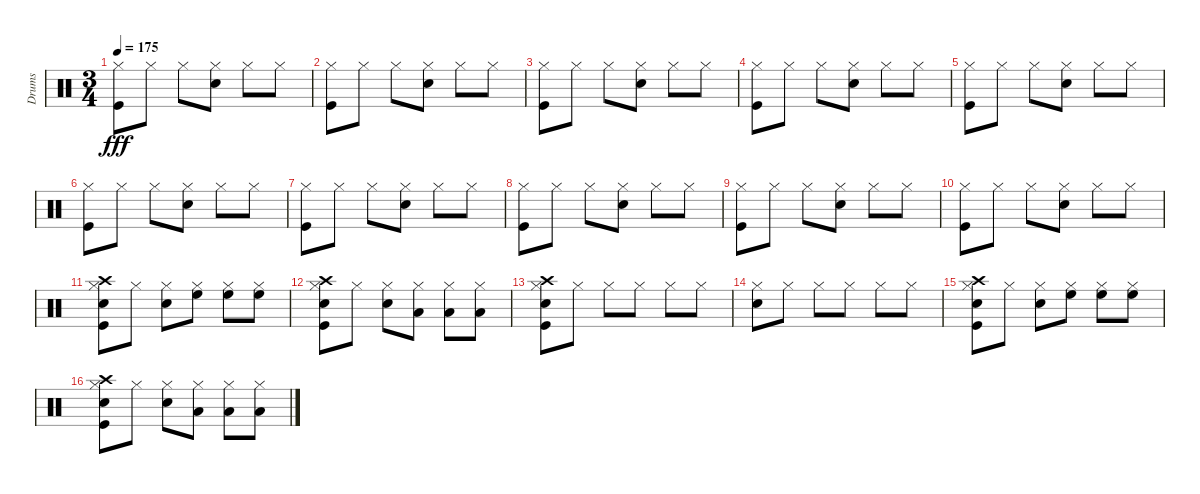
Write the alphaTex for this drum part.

\track ("Drums" "Drums") {instrument percussion}
\staff {score}
\articulation defaults
\ts (3 4)
\tempo 175
\clef neutral
\ks c
("Hi-Hat (closed)" "Kick (hit)").8{dy fff} "Hi-Hat (closed)".8 "Hi-Hat (closed)".8 ("Hi-Hat (closed)" "Snare (hit) 2").8 "Hi-Hat (closed)".8 "Hi-Hat (closed)".8 |
("Hi-Hat (closed)" "Kick (hit)").8 "Hi-Hat (closed)".8 "Hi-Hat (closed)".8 ("Hi-Hat (closed)" "Snare (hit) 2").8 "Hi-Hat (closed)".8 "Hi-Hat (closed)".8 |
("Hi-Hat (closed)" "Kick (hit)").8 "Hi-Hat (closed)".8 "Hi-Hat (closed)".8 ("Hi-Hat (closed)" "Snare (hit) 2").8 "Hi-Hat (closed)".8 "Hi-Hat (closed)".8 |
("Hi-Hat (closed)" "Kick (hit)").8 "Hi-Hat (closed)".8 "Hi-Hat (closed)".8 ("Hi-Hat (closed)" "Snare (hit) 2").8 "Hi-Hat (closed)".8 "Hi-Hat (closed)".8 |
("Hi-Hat (closed)" "Kick (hit)").8 "Hi-Hat (closed)".8 "Hi-Hat (closed)".8 ("Hi-Hat (closed)" "Snare (hit) 2").8 "Hi-Hat (closed)".8 "Hi-Hat (closed)".8 |
("Hi-Hat (closed)" "Kick (hit)").8 "Hi-Hat (closed)".8 "Hi-Hat (closed)".8 ("Hi-Hat (closed)" "Snare (hit) 2").8 "Hi-Hat (closed)".8 "Hi-Hat (closed)".8 |
("Hi-Hat (closed)" "Kick (hit)").8 "Hi-Hat (closed)".8 "Hi-Hat (closed)".8 ("Hi-Hat (closed)" "Snare (hit) 2").8 "Hi-Hat (closed)".8 "Hi-Hat (closed)".8 |
("Hi-Hat (closed)" "Kick (hit)").8 "Hi-Hat (closed)".8 "Hi-Hat (closed)".8 ("Hi-Hat (closed)" "Snare (hit) 2").8 "Hi-Hat (closed)".8 "Hi-Hat (closed)".8 |
("Hi-Hat (closed)" "Kick (hit)").8 "Hi-Hat (closed)".8 "Hi-Hat (closed)".8 ("Hi-Hat (closed)" "Snare (hit) 2").8 "Hi-Hat (closed)".8 "Hi-Hat (closed)".8 |
("Hi-Hat (closed)" "Kick (hit)").8 "Hi-Hat (closed)".8 "Hi-Hat (closed)".8 ("Hi-Hat (closed)" "Snare (hit) 2").8 "Hi-Hat (closed)".8 "Hi-Hat (closed)".8 |
("Hi-Hat (closed)" "Snare (hit) 2" "Crash high (hit)" "Kick (hit)").8 "Hi-Hat (closed)".8 ("Hi-Hat (closed)" "Snare (hit) 2").8 ("Hi-Hat (closed)" "High Floor Tom (hit)").8 ("Hi-Hat (closed)" "High Floor Tom (hit)").8 ("Hi-Hat (closed)" "High Floor Tom (hit)").8 |
("Hi-Hat (closed)" "Snare (hit) 2" "Crash high (hit)" "Kick (hit)").8 "Hi-Hat (closed)".8 ("Hi-Hat (closed)" "Snare (hit) 2").8 ("Hi-Hat (closed)" "Low Tom (hit)").8 ("Hi-Hat (closed)" "Low Tom (hit)").8 ("Hi-Hat (closed)" "Low Tom (hit)").8 |
("Hi-Hat (closed)" "Kick (hit)" "Snare (hit) 2" "Crash high (hit)").8 "Hi-Hat (closed)".8 "Hi-Hat (closed)".8 "Hi-Hat (closed)".8 "Hi-Hat (closed)".8 "Hi-Hat (closed)".8 |
("Snare (hit) 2" "Hi-Hat (closed)").8 "Hi-Hat (closed)".8 "Hi-Hat (closed)".8 "Hi-Hat (closed)".8 "Hi-Hat (closed)".8 "Hi-Hat (closed)".8 |
("Hi-Hat (closed)" "Snare (hit) 2" "Crash high (hit)" "Kick (hit)").8 "Hi-Hat (closed)".8 ("Hi-Hat (closed)" "Snare (hit) 2").8 ("Hi-Hat (closed)" "High Floor Tom (hit)").8 ("Hi-Hat (closed)" "High Floor Tom (hit)").8 ("Hi-Hat (closed)" "High Floor Tom (hit)").8 |
("Hi-Hat (closed)" "Snare (hit) 2" "Crash high (hit)" "Kick (hit)").8 "Hi-Hat (closed)".8 ("Hi-Hat (closed)" "Snare (hit) 2").8 ("Hi-Hat (closed)" "Low Tom (hit)").8 ("Hi-Hat (closed)" "Low Tom (hit)").8 ("Hi-Hat (closed)" "Low Tom (hit)").8
